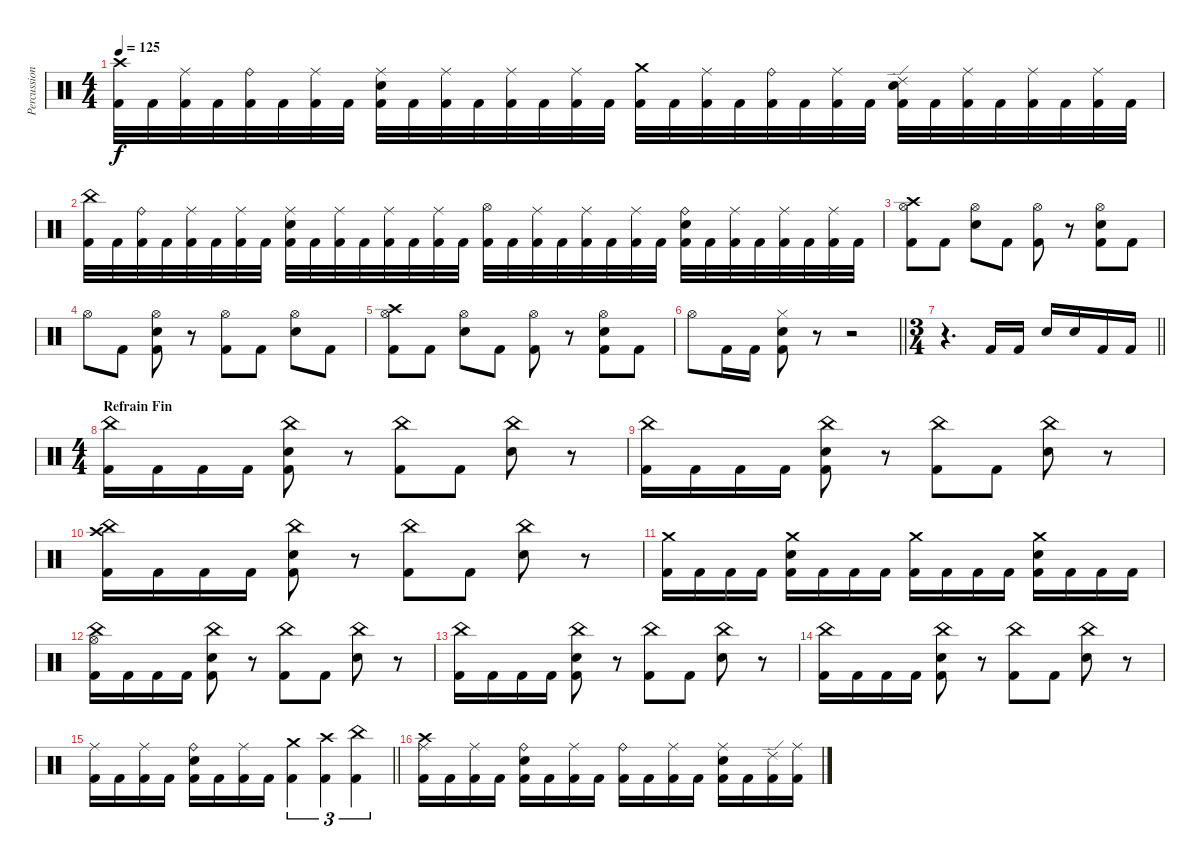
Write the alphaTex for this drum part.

\track ("Percussions" "Percussion") {instrument percussion}
\staff {score}
\articulation defaults
\ts (4 4)
\tempo 125
\clef neutral
\ks c
("Crash high (hit)" "Kick (hit) 2").32{dy f} "Kick (hit) 2".32 ("Ride (middle)" "Kick (hit) 2").32 "Kick (hit) 2".32 ("Ride (bell)" "Kick (hit) 2").32 "Kick (hit) 2".32 ("Ride (middle)" "Kick (hit) 2").32 "Kick (hit) 2".32 ("Ride (middle)" "Electric Snare (hit)" "Kick (hit) 2").32 "Kick (hit) 2".32 ("Ride (middle)" "Kick (hit) 2").32 "Kick (hit) 2".32 ("Ride (middle)" "Kick (hit) 2").32 "Kick (hit) 2".32 ("Ride (middle)" "Kick (hit) 2").32 "Kick (hit) 2".32 ("Crash medium (hit)" "Kick (hit) 2").32 "Kick (hit) 2".32 ("Ride (middle)" "Kick (hit) 2").32 "Kick (hit) 2".32 ("Ride (bell)" "Kick (hit) 2").32 "Kick (hit) 2".32 ("Ride (middle)" "Kick (hit) 2").32 "Kick (hit) 2".32 ("Ride (edge) 2" "Electric Snare (hit)" "Kick (hit) 2").32 "Kick (hit) 2".32 ("Ride (middle)" "Kick (hit) 2").32 "Kick (hit) 2".32 ("Ride (middle)" "Kick (hit) 2").32 "Kick (hit) 2".32 ("Ride (middle)" "Kick (hit) 2").32 "Kick (hit) 2".32 |
("China (hit)" "Kick (hit) 2").32 "Kick (hit) 2".32 ("Ride (bell)" "Kick (hit) 2").32 "Kick (hit) 2".32 ("Ride (middle)" "Kick (hit) 2").32 "Kick (hit) 2".32 ("Ride (middle)" "Kick (hit) 2").32 "Kick (hit) 2".32 ("Ride (middle)" "Electric Snare (hit)" "Kick (hit) 2").32 "Kick (hit) 2".32 ("Ride (middle)" "Kick (hit) 2").32 "Kick (hit) 2".32 ("Ride (middle)" "Kick (hit) 2").32 "Kick (hit) 2".32 ("Ride (middle)" "Kick (hit) 2").32 "Kick (hit) 2".32 ("Hi-Hat (open)" "Kick (hit) 2").32 "Kick (hit) 2".32 ("Ride (middle)" "Kick (hit) 2").32 "Kick (hit) 2".32 ("Ride (middle)" "Kick (hit) 2").32 "Kick (hit) 2".32 ("Ride (middle)" "Kick (hit) 2").32 "Kick (hit) 2".32 ("Ride (bell)" "Electric Snare (hit)" "Kick (hit) 2").32 "Kick (hit) 2".32 ("Ride (middle)" "Kick (hit) 2").32 "Kick (hit) 2".32 ("Ride (middle)" "Kick (hit) 2").32 "Kick (hit) 2".32 ("Ride (middle)" "Kick (hit) 2").32 "Kick (hit) 2".32 |
("Hi-Hat (open)" "Crash high (hit)" "Kick (hit) 2").8 "Kick (hit) 2".8 ("Hi-Hat (open)" "Electric Snare (hit)").8 "Kick (hit) 2".8 ("Hi-Hat (open)" "Kick (hit) 2").8 r.8 ("Hi-Hat (open)" "Electric Snare (hit)" "Kick (hit) 2").8 "Kick (hit) 2".8 |
"Hi-Hat (open)".8 "Kick (hit) 2".8 ("Hi-Hat (open)" "Electric Snare (hit)" "Kick (hit) 2").8 r.8 ("Hi-Hat (open)" "Kick (hit) 2").8 "Kick (hit) 2".8 ("Hi-Hat (open)" "Electric Snare (hit)").8 "Kick (hit) 2".8 |
("Hi-Hat (open)" "Crash high (hit)" "Kick (hit) 2").8 "Kick (hit) 2".8 ("Hi-Hat (open)" "Electric Snare (hit)").8 "Kick (hit) 2".8 ("Hi-Hat (open)" "Kick (hit) 2").8 r.8 ("Hi-Hat (open)" "Electric Snare (hit)" "Kick (hit) 2").8 "Kick (hit) 2".8 |
\barLineRight lightlight "Hi-Hat (open)".8 "Kick (hit) 2".16 "Kick (hit) 2".16
("Hi-Hat (closed)" "Electric Snare (hit)" "Kick (hit) 2").8 r.8 r.2 |
\ts (3 4)
\barLineRight lightlight
r.4{d} "Kick (hit) 2".16 "Kick (hit) 2".16 "Electric Snare (hit)".16 "Electric Snare (hit)".16 "Kick (hit) 2".16 "Kick (hit) 2".16 |
\ts (4 4)
\section ("" "Refrain Fin")
("China (hit)" "Kick (hit) 2").16 "Kick (hit) 2".16 "Kick (hit) 2".16 "Kick (hit) 2".16 ("China (hit)" "Electric Snare (hit)" "Kick (hit) 2").8 r.8 ("China (hit)" "Kick (hit) 2").8 "Kick (hit) 2".8 ("China (hit)" "Electric Snare (hit)").8 r.8 |
("China (hit)" "Kick (hit) 2").16 "Kick (hit) 2".16 "Kick (hit) 2".16 "Kick (hit) 2".16 ("China (hit)" "Electric Snare (hit)" "Kick (hit) 2").8 r.8 ("China (hit)" "Kick (hit) 2").8 "Kick (hit) 2".8 ("China (hit)" "Electric Snare (hit)").8 r.8 |
("China (hit)" "Crash high (hit)" "Kick (hit) 2").16 "Kick (hit) 2".16 "Kick (hit) 2".16 "Kick (hit) 2".16 ("China (hit)" "Electric Snare (hit)" "Kick (hit) 2").8 r.8 ("China (hit)" "Kick (hit) 2").8 "Kick (hit) 2".8 ("China (hit)" "Electric Snare (hit)").8 r.8 |
("Crash medium (hit)" "Kick (hit) 2").16 "Kick (hit) 2".16 "Kick (hit) 2".16 "Kick (hit) 2".16 ("Crash medium (hit)" "Electric Snare (hit)" "Kick (hit) 2").16 "Kick (hit) 2".16 "Kick (hit) 2".16 "Kick (hit) 2".16 ("Crash medium (hit)" "Kick (hit) 2").16 "Kick (hit) 2".16 "Kick (hit) 2".16 "Kick (hit) 2".16 ("Crash medium (hit)" "Electric Snare (hit)" "Kick (hit) 2").16 "Kick (hit) 2".16 "Kick (hit) 2".16 "Kick (hit) 2".16 |
("China (hit)" "Hi-Hat (open)" "Kick (hit) 2").16 "Kick (hit) 2".16 "Kick (hit) 2".16 "Kick (hit) 2".16 ("China (hit)" "Electric Snare (hit)" "Kick (hit) 2").8 r.8 ("China (hit)" "Kick (hit) 2").8 "Kick (hit) 2".8 ("China (hit)" "Electric Snare (hit)").8 r.8 |
("China (hit)" "Kick (hit) 2").16 "Kick (hit) 2".16 "Kick (hit) 2".16 "Kick (hit) 2".16 ("China (hit)" "Electric Snare (hit)" "Kick (hit) 2").8 r.8 ("China (hit)" "Kick (hit) 2").8 "Kick (hit) 2".8 ("China (hit)" "Electric Snare (hit)").8 r.8 |
("China (hit)" "Kick (hit) 2").16 "Kick (hit) 2".16 "Kick (hit) 2".16 "Kick (hit) 2".16 ("China (hit)" "Electric Snare (hit)" "Kick (hit) 2").8 r.8 ("China (hit)" "Kick (hit) 2").8 "Kick (hit) 2".8 ("China (hit)" "Electric Snare (hit)").8 r.8 |
\barLineRight lightlight
("Ride (middle)" "Kick (hit) 2").16 "Kick (hit) 2".16 ("Ride (middle)" "Kick (hit) 2").16 "Kick (hit) 2".16 ("Ride (bell)" "Electric Snare (hit)" "Kick (hit) 2").16 "Kick (hit) 2".16 ("Ride (middle)" "Kick (hit) 2").16 "Kick (hit) 2".16 ("Crash medium (hit)" "Kick (hit) 2").4{tu (3 2)} ("Crash high (hit)" "Kick (hit) 2").4{tu (3 2)} ("China (hit)" "Kick (hit) 2").4{tu (3 2)} |
("Crash high (hit)" "Ride (middle)" "Kick (hit) 2").16 "Kick (hit) 2".16 ("Ride (middle)" "Kick (hit) 2").16 "Kick (hit) 2".16 ("Ride (bell)" "Electric Snare (hit)" "Kick (hit) 2").16 "Kick (hit) 2".16 ("Ride (middle)" "Kick (hit) 2").16 "Kick (hit) 2".16 ("Ride (bell)" "Kick (hit) 2").16 "Kick (hit) 2".16 ("Ride (middle)" "Kick (hit) 2").16 "Kick (hit) 2".16 ("Ride (middle)" "Electric Snare (hit)" "Kick (hit) 2").16 "Kick (hit) 2".16 ("Ride (edge) 2" "Kick (hit) 2").16 ("Ride (middle)" "Kick (hit) 2").16
